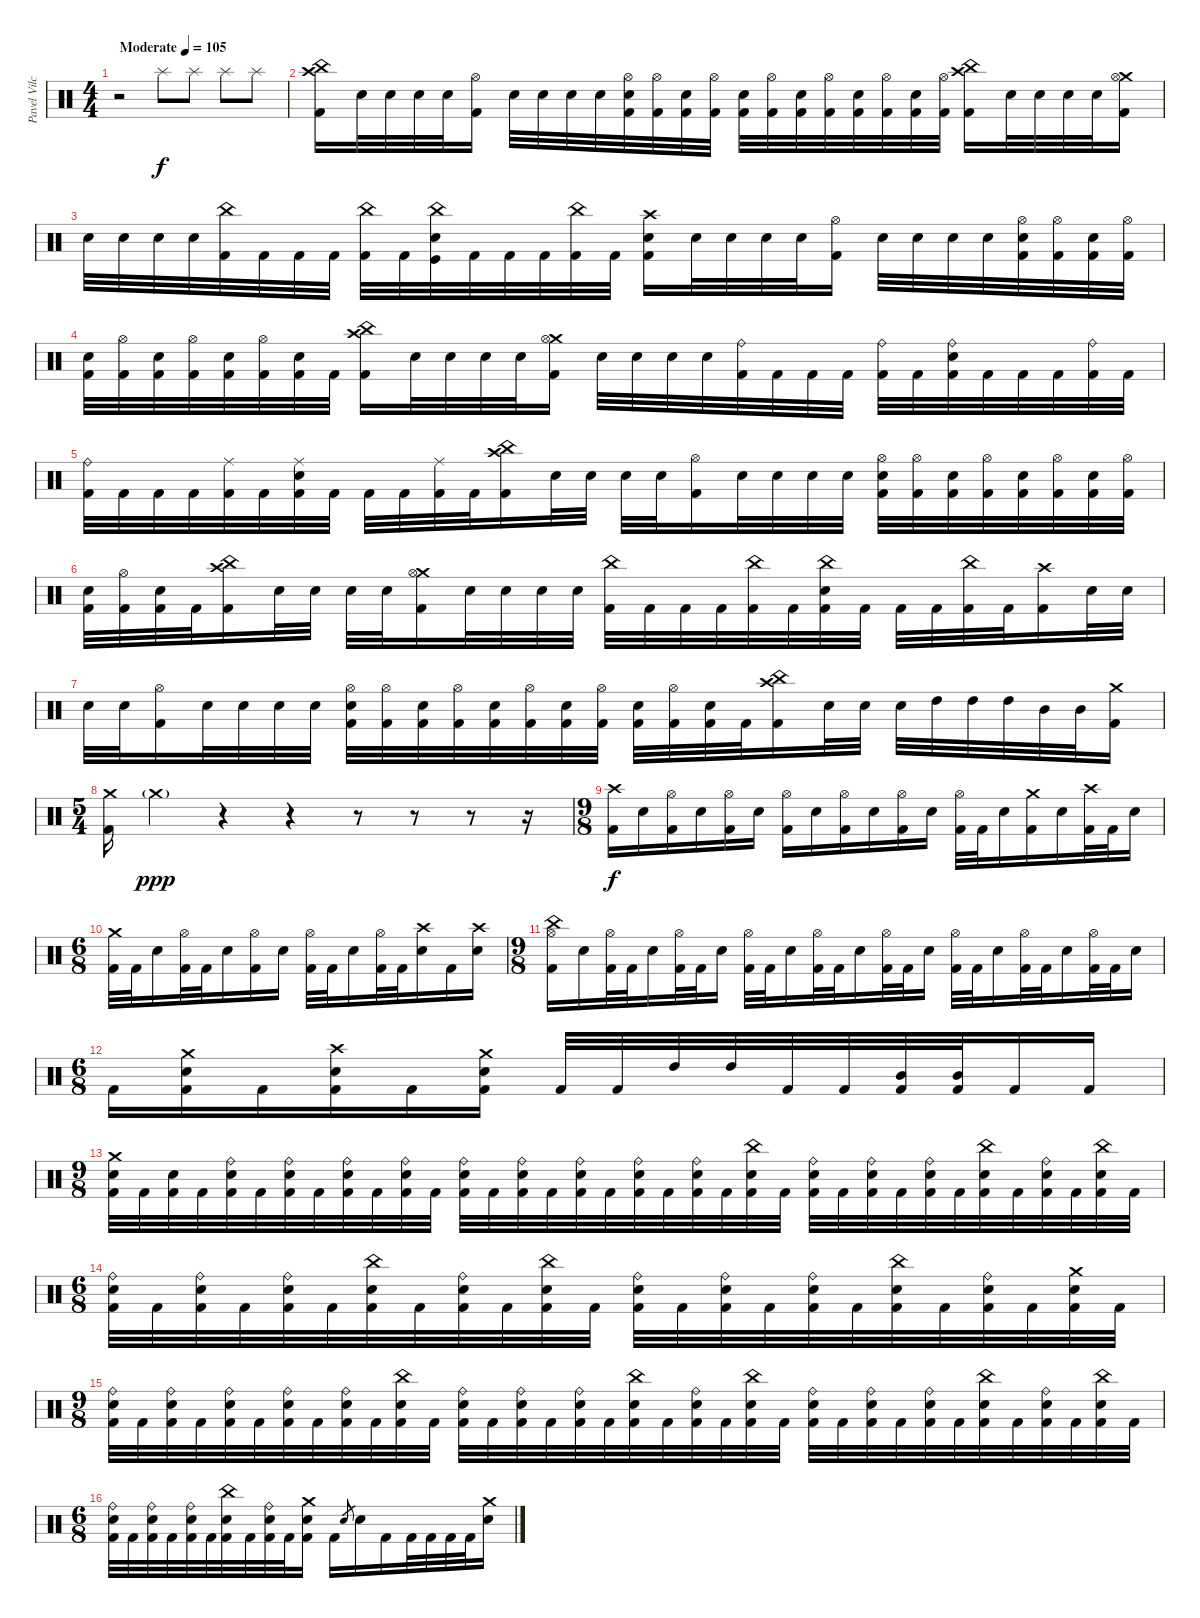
\track ("Pavel Vilchytski " "Pavel Vilc") {instrument percussion}
\staff {score}
\articulation defaults
\ts (4 4)
\tempo (105 "Moderate")
\clef neutral
\ks c
r.2{dy f} "Splash (hit)".8 "Splash (hit)".8 "Splash (hit)".8 "Splash (hit)".8 |
("China (hit)" "Crash high (hit)" "Kick (hit) 2").16 "Electric Snare (hit)".32 "Electric Snare (hit)".32 "Electric Snare (hit)".32 "Electric Snare (hit)".32 ("Hi-Hat (open)" "Kick (hit) 2").16 "Electric Snare (hit)".32 "Electric Snare (hit)".32 "Electric Snare (hit)".32 "Electric Snare (hit)".32 ("Hi-Hat (open)" "Electric Snare (hit)" "Kick (hit) 2").32 ("Hi-Hat (open)" "Kick (hit) 2").32 ("Electric Snare (hit)" "Kick (hit) 2").32 ("Hi-Hat (open)" "Kick (hit) 2").32 ("Electric Snare (hit)" "Kick (hit) 2").32 ("Hi-Hat (open)" "Kick (hit) 2").32 ("Electric Snare (hit)" "Kick (hit) 2").32 ("Hi-Hat (open)" "Kick (hit) 2").32 ("Electric Snare (hit)" "Kick (hit) 2").32 ("Hi-Hat (open)" "Kick (hit) 2").32 ("Electric Snare (hit)" "Kick (hit) 2").32 ("Hi-Hat (open)" "Kick (hit) 2").32 ("China (hit)" "Crash high (hit)" "Kick (hit) 2").16 "Electric Snare (hit)".32 "Electric Snare (hit)".32 "Electric Snare (hit)".32 "Electric Snare (hit)".32 ("Crash medium (hit)" "Hi-Hat (open)" "Kick (hit) 2").16 |
"Electric Snare (hit)".32 "Electric Snare (hit)".32 "Electric Snare (hit)".32 "Electric Snare (hit)".32 ("China (hit)" "Kick (hit) 2").32 "Kick (hit) 2".32 "Kick (hit) 2".32 "Kick (hit) 2".32 ("China (hit)" "Kick (hit) 2").32 "Kick (hit) 2".32 ("China (hit)" "Electric Snare (hit)" "Kick (hit)").32 "Kick (hit) 2".32 "Kick (hit) 2".32 "Kick (hit) 2".32 ("China (hit)" "Kick (hit) 2").32 "Kick (hit) 2".32 ("Crash high (hit)" "Electric Snare (hit)" "Kick (hit) 2").16 "Electric Snare (hit)".32 "Electric Snare (hit)".32 "Electric Snare (hit)".32 "Electric Snare (hit)".32 ("Hi-Hat (open)" "Kick (hit) 2").16 "Electric Snare (hit)".32 "Electric Snare (hit)".32 "Electric Snare (hit)".32 "Electric Snare (hit)".32 ("Hi-Hat (open)" "Electric Snare (hit)" "Kick (hit) 2").32 ("Hi-Hat (open)" "Kick (hit) 2").32 ("Electric Snare (hit)" "Kick (hit) 2").32 ("Hi-Hat (open)" "Kick (hit) 2").32 |
("Electric Snare (hit)" "Kick (hit) 2").32 ("Hi-Hat (open)" "Kick (hit) 2").32 ("Electric Snare (hit)" "Kick (hit) 2").32 ("Hi-Hat (open)" "Kick (hit) 2").32 ("Electric Snare (hit)" "Kick (hit) 2").32 ("Hi-Hat (open)" "Kick (hit) 2").32 ("Electric Snare (hit)" "Kick (hit) 2").32 "Kick (hit) 2".32 ("China (hit)" "Crash high (hit)" "Kick (hit) 2").16 "Electric Snare (hit)".32 "Electric Snare (hit)".32 "Electric Snare (hit)".32 "Electric Snare (hit)".32 ("Crash medium (hit)" "Hi-Hat (open)" "Kick (hit) 2").16 "Electric Snare (hit)".32 "Electric Snare (hit)".32 "Electric Snare (hit)".32 "Electric Snare (hit)".32 ("Ride (bell)" "Kick (hit) 2").32 "Kick (hit) 2".32 "Kick (hit) 2".32 "Kick (hit) 2".32 ("Ride (bell)" "Kick (hit) 2").32 "Kick (hit) 2".32 ("Ride (bell)" "Electric Snare (hit)" "Kick (hit) 2").32 "Kick (hit) 2".32 "Kick (hit) 2".32 "Kick (hit) 2".32 ("Ride (bell)" "Kick (hit) 2").32 "Kick (hit) 2".32 |
("Ride (bell)" "Kick (hit) 2").32 "Kick (hit) 2".32 "Kick (hit) 2".32 "Kick (hit) 2".32 ("Ride (middle)" "Kick (hit) 2").32 "Kick (hit) 2".32 ("Ride (middle)" "Electric Snare (hit)" "Kick (hit) 2").32 "Kick (hit) 2".32 "Kick (hit) 2".32 "Kick (hit) 2".32 ("Ride (middle)" "Kick (hit) 2").32 "Kick (hit) 2".32 ("China (hit)" "Crash high (hit)" "Kick (hit) 2").16 "Electric Snare (hit)".32 "Electric Snare (hit)".32 "Electric Snare (hit)".32 "Electric Snare (hit)".32 ("Hi-Hat (open)" "Kick (hit) 2").16 "Electric Snare (hit)".32 "Electric Snare (hit)".32 "Electric Snare (hit)".32 "Electric Snare (hit)".32 ("Hi-Hat (open)" "Electric Snare (hit)" "Kick (hit) 2").32 ("Hi-Hat (open)" "Kick (hit) 2").32 ("Electric Snare (hit)" "Kick (hit) 2").32 ("Hi-Hat (open)" "Kick (hit) 2").32 ("Electric Snare (hit)" "Kick (hit) 2").32 ("Hi-Hat (open)" "Kick (hit) 2").32 ("Electric Snare (hit)" "Kick (hit) 2").32 ("Hi-Hat (open)" "Kick (hit) 2").32 |
("Electric Snare (hit)" "Kick (hit) 2").32 ("Hi-Hat (open)" "Kick (hit) 2").32 ("Electric Snare (hit)" "Kick (hit) 2").32 "Kick (hit) 2".32 ("China (hit)" "Crash high (hit)" "Kick (hit) 2").16 "Electric Snare (hit)".32 "Electric Snare (hit)".32 "Electric Snare (hit)".32 "Electric Snare (hit)".32 ("Crash medium (hit)" "Hi-Hat (open)" "Kick (hit) 2").16 "Electric Snare (hit)".32 "Electric Snare (hit)".32 "Electric Snare (hit)".32 "Electric Snare (hit)".32 ("China (hit)" "Kick (hit) 2").32 "Kick (hit) 2".32 "Kick (hit) 2".32 "Kick (hit) 2".32 ("China (hit)" "Kick (hit) 2").32 "Kick (hit) 2".32 ("China (hit)" "Electric Snare (hit)" "Kick (hit) 2").32 "Kick (hit) 2".32 "Kick (hit) 2".32 "Kick (hit) 2".32 ("China (hit)" "Kick (hit) 2").32 "Kick (hit) 2".32 ("Crash high (hit)" "Kick (hit) 2").16 "Electric Snare (hit)".32 "Electric Snare (hit)".32 |
"Electric Snare (hit)".32 "Electric Snare (hit)".32 ("Hi-Hat (open)" "Kick (hit) 2").16 "Electric Snare (hit)".32 "Electric Snare (hit)".32 "Electric Snare (hit)".32 "Electric Snare (hit)".32 ("Hi-Hat (open)" "Electric Snare (hit)" "Kick (hit) 2").32 ("Hi-Hat (open)" "Kick (hit) 2").32 ("Electric Snare (hit)" "Kick (hit) 2").32 ("Hi-Hat (open)" "Kick (hit) 2").32 ("Electric Snare (hit)" "Kick (hit) 2").32 ("Hi-Hat (open)" "Kick (hit) 2").32 ("Electric Snare (hit)" "Kick (hit) 2").32 ("Hi-Hat (open)" "Kick (hit) 2").32 ("Electric Snare (hit)" "Kick (hit) 2").32 ("Hi-Hat (open)" "Kick (hit) 2").32 ("Electric Snare (hit)" "Kick (hit) 2").32 "Kick (hit) 2".32 ("China (hit)" "Crash high (hit)" "Kick (hit) 2").16 "Electric Snare (hit)".32 "Electric Snare (hit)".32 "Electric Snare (hit)".32 "High Tom (hit)".32 "High Tom (hit)".32 "High Tom (hit)".32 "Mid Tom (hit)".32 "Mid Tom (hit)".32 ("Crash medium (hit)" "Kick (hit) 2").16 |
\ts (5 4)
("Crash medium (hit)" "Kick (hit) 2").16 "Crash medium (hit)"{g}.4{dy ppp} r.4 r.4 r.8 r.8 r.8 r.16 |
\ts (9 8)
("Crash high (hit)" "Kick (hit) 2").16{dy f} "Electric Snare (hit)".16 ("Hi-Hat (open)" "Kick (hit) 2").16 "Electric Snare (hit)".16 ("Hi-Hat (open)" "Kick (hit) 2").16 "Electric Snare (hit)".16 ("Hi-Hat (open)" "Kick (hit) 2").16 "Electric Snare (hit)".16 ("Hi-Hat (open)" "Kick (hit) 2").16 "Electric Snare (hit)".16 ("Hi-Hat (open)" "Kick (hit) 2").16 "Electric Snare (hit)".16 ("Hi-Hat (open)" "Kick (hit) 2").32 "Kick (hit) 2".32 "Electric Snare (hit)".16 ("Crash medium (hit)" "Kick (hit) 2").16 "Electric Snare (hit)".16 ("Crash high (hit)" "Kick (hit) 2").32 "Kick (hit) 2".32 "Electric Snare (hit)".16 |
\ts (6 8)
("Crash medium (hit)" "Kick (hit) 2").32 "Kick (hit) 2".32 "Electric Snare (hit)".16 ("Hi-Hat (open)" "Kick (hit) 2").32 "Kick (hit) 2".32 "Electric Snare (hit)".16 ("Hi-Hat (open)" "Kick (hit) 2").16 "Electric Snare (hit)".16 ("Hi-Hat (open)" "Kick (hit) 2").32 "Kick (hit) 2".32 "Electric Snare (hit)".16 ("Hi-Hat (open)" "Kick (hit) 2").32 "Kick (hit) 2".32 ("Crash high (hit)" "Electric Snare (hit)").16 "Kick (hit) 2".16 ("Crash high (hit)" "Electric Snare (hit)").16 |
\ts (9 8)
("China (hit)" "Hi-Hat (open)" "Kick (hit) 2").16 "Electric Snare (hit)".16 ("Hi-Hat (open)" "Kick (hit) 2").32 "Kick (hit) 2".32 "Electric Snare (hit)".16 ("Hi-Hat (open)" "Kick (hit) 2").32 "Kick (hit) 2".32 "Electric Snare (hit)".16 ("Hi-Hat (open)" "Kick (hit) 2").32 "Kick (hit) 2".32 "Electric Snare (hit)".16 ("Hi-Hat (open)" "Kick (hit) 2").32 "Kick (hit) 2".32 "Electric Snare (hit)".16 ("Hi-Hat (open)" "Kick (hit) 2").32 "Kick (hit) 2".32 "Electric Snare (hit)".16 ("Hi-Hat (open)" "Kick (hit) 2").32 "Kick (hit) 2".32 "Electric Snare (hit)".16 ("Hi-Hat (open)" "Kick (hit) 2").32 "Kick (hit) 2".32 "Electric Snare (hit)".16 ("Hi-Hat (open)" "Kick (hit) 2").32 "Kick (hit) 2".32 "Electric Snare (hit)".16 |
\ts (6 8)
"Kick (hit) 2".16 ("Crash medium (hit)" "Electric Snare (hit)" "Kick (hit) 2").16 "Kick (hit) 2".16 ("Crash high (hit)" "Electric Snare (hit)" "Kick (hit) 2").16 "Kick (hit) 2".16 ("Crash medium (hit)" "Electric Snare (hit)" "Kick (hit) 2").16 "Kick (hit) 2".32 "Kick (hit) 2".32 "High Tom (hit)".32 "High Tom (hit)".32 "Kick (hit) 2".32 "Kick (hit) 2".32 ("Mid Tom (hit)" "Kick (hit) 2").32 ("Mid Tom (hit)" "Kick (hit) 2").32 "Kick (hit) 2".16 "Kick (hit) 2".16 |
\ts (9 8)
("Crash medium (hit)" "Electric Snare (hit)" "Kick (hit) 2").32 "Kick (hit) 2".32 ("Electric Snare (hit)" "Kick (hit) 2").32 "Kick (hit) 2".32 ("Ride (bell)" "Electric Snare (hit)" "Kick (hit) 2").32 "Kick (hit) 2".32 ("Ride (bell)" "Electric Snare (hit)" "Kick (hit) 2").32 "Kick (hit) 2".32 ("Ride (bell)" "Electric Snare (hit)" "Kick (hit) 2").32 "Kick (hit) 2".32 ("Ride (bell)" "Electric Snare (hit)" "Kick (hit) 2").32 "Kick (hit) 2".32 ("Ride (bell)" "Electric Snare (hit)" "Kick (hit) 2").32 "Kick (hit) 2".32 ("Ride (bell)" "Electric Snare (hit)" "Kick (hit) 2").32 "Kick (hit) 2".32 ("Ride (bell)" "Electric Snare (hit)" "Kick (hit) 2").32 "Kick (hit) 2".32 ("Ride (bell)" "Electric Snare (hit)" "Kick (hit) 2").32 "Kick (hit) 2".32 ("Ride (bell)" "Electric Snare (hit)" "Kick (hit) 2").32 "Kick (hit) 2".32 ("China (hit)" "Electric Snare (hit)" "Kick (hit) 2").32 "Kick (hit) 2".32 ("Ride (bell)" "Electric Snare (hit)" "Kick (hit) 2").32 "Kick (hit) 2".32 ("Ride (bell)" "Electric Snare (hit)" "Kick (hit) 2").32 "Kick (hit) 2".32 ("Ride (bell)" "Electric Snare (hit)" "Kick (hit) 2").32 "Kick (hit) 2".32 ("China (hit)" "Electric Snare (hit)" "Kick (hit) 2").32 "Kick (hit) 2".32 ("Ride (bell)" "Electric Snare (hit)" "Kick (hit) 2").32 "Kick (hit) 2".32 ("China (hit)" "Electric Snare (hit)" "Kick (hit) 2").32 "Kick (hit) 2".32 |
\ts (6 8)
("Ride (bell)" "Electric Snare (hit)" "Kick (hit) 2").32 "Kick (hit) 2".32 ("Ride (bell)" "Electric Snare (hit)" "Kick (hit) 2").32 "Kick (hit) 2".32 ("Ride (bell)" "Electric Snare (hit)" "Kick (hit) 2").32 "Kick (hit) 2".32 ("China (hit)" "Electric Snare (hit)" "Kick (hit) 2").32 "Kick (hit) 2".32 ("Ride (bell)" "Electric Snare (hit)" "Kick (hit) 2").32 "Kick (hit) 2".32 ("China (hit)" "Electric Snare (hit)" "Kick (hit) 2").32 "Kick (hit) 2".32 ("Ride (bell)" "Electric Snare (hit)" "Kick (hit) 2").32 "Kick (hit) 2".32 ("Ride (bell)" "Electric Snare (hit)" "Kick (hit) 2").32 "Kick (hit) 2".32 ("Ride (bell)" "Electric Snare (hit)" "Kick (hit) 2").32 "Kick (hit) 2".32 ("China (hit)" "Electric Snare (hit)" "Kick (hit) 2").32 "Kick (hit) 2".32 ("Ride (bell)" "Electric Snare (hit)" "Kick (hit) 2").32 "Kick (hit) 2".32 ("Crash medium (hit)" "Electric Snare (hit)" "Kick (hit) 2").32 "Kick (hit) 2".32 |
\ts (9 8)
("Ride (bell)" "Electric Snare (hit)" "Kick (hit) 2").32 "Kick (hit) 2".32 ("Ride (bell)" "Electric Snare (hit)" "Kick (hit) 2").32 "Kick (hit) 2".32 ("Ride (bell)" "Electric Snare (hit)" "Kick (hit) 2").32 "Kick (hit) 2".32 ("Ride (bell)" "Electric Snare (hit)" "Kick (hit) 2").32 "Kick (hit) 2".32 ("Ride (bell)" "Electric Snare (hit)" "Kick (hit) 2").32 "Kick (hit) 2".32 ("China (hit)" "Electric Snare (hit)" "Kick (hit) 2").32 "Kick (hit) 2".32 ("Ride (bell)" "Electric Snare (hit)" "Kick (hit) 2").32 "Kick (hit) 2".32 ("Ride (bell)" "Electric Snare (hit)" "Kick (hit) 2").32 "Kick (hit) 2".32 ("Ride (bell)" "Electric Snare (hit)" "Kick (hit) 2").32 "Kick (hit) 2".32 ("China (hit)" "Electric Snare (hit)" "Kick (hit) 2").32 "Kick (hit) 2".32 ("Ride (bell)" "Electric Snare (hit)" "Kick (hit) 2").32 "Kick (hit) 2".32 ("China (hit)" "Electric Snare (hit)" "Kick (hit) 2").32 "Kick (hit) 2".32 ("Ride (bell)" "Electric Snare (hit)" "Kick (hit) 2").32 "Kick (hit) 2".32 ("Ride (bell)" "Electric Snare (hit)" "Kick (hit) 2").32 "Kick (hit) 2".32 ("Ride (bell)" "Electric Snare (hit)" "Kick (hit) 2").32 "Kick (hit) 2".32 ("China (hit)" "Electric Snare (hit)" "Kick (hit) 2").32 "Kick (hit) 2".32 ("Ride (bell)" "Electric Snare (hit)" "Kick (hit) 2").32 "Kick (hit) 2".32 ("China (hit)" "Electric Snare (hit)" "Kick (hit) 2").32 "Kick (hit) 2".32 |
\ts (6 8)
("Ride (bell)" "Electric Snare (hit)" "Kick (hit) 2").32 "Kick (hit) 2".32 ("Ride (bell)" "Electric Snare (hit)" "Kick (hit) 2").32 "Kick (hit) 2".32 ("Ride (bell)" "Electric Snare (hit)" "Kick (hit) 2").32 "Kick (hit) 2".32 ("China (hit)" "Electric Snare (hit)" "Kick (hit) 2").32 "Kick (hit) 2".32 ("Ride (bell)" "Electric Snare (hit)" "Kick (hit) 2").32 "Kick (hit) 2".32 ("Crash medium (hit)" "Electric Snare (hit)" "Kick (hit) 2").16 "Kick (hit) 2".16 "Electric Snare (hit)".8{gr} "Electric Snare (hit)".16 "Kick (hit) 2".16 "Kick (hit) 2".32 "Kick (hit) 2".32 "Kick (hit) 2".32 "Kick (hit) 2".32 ("Crash medium (hit)" "Electric Snare (hit)").16
